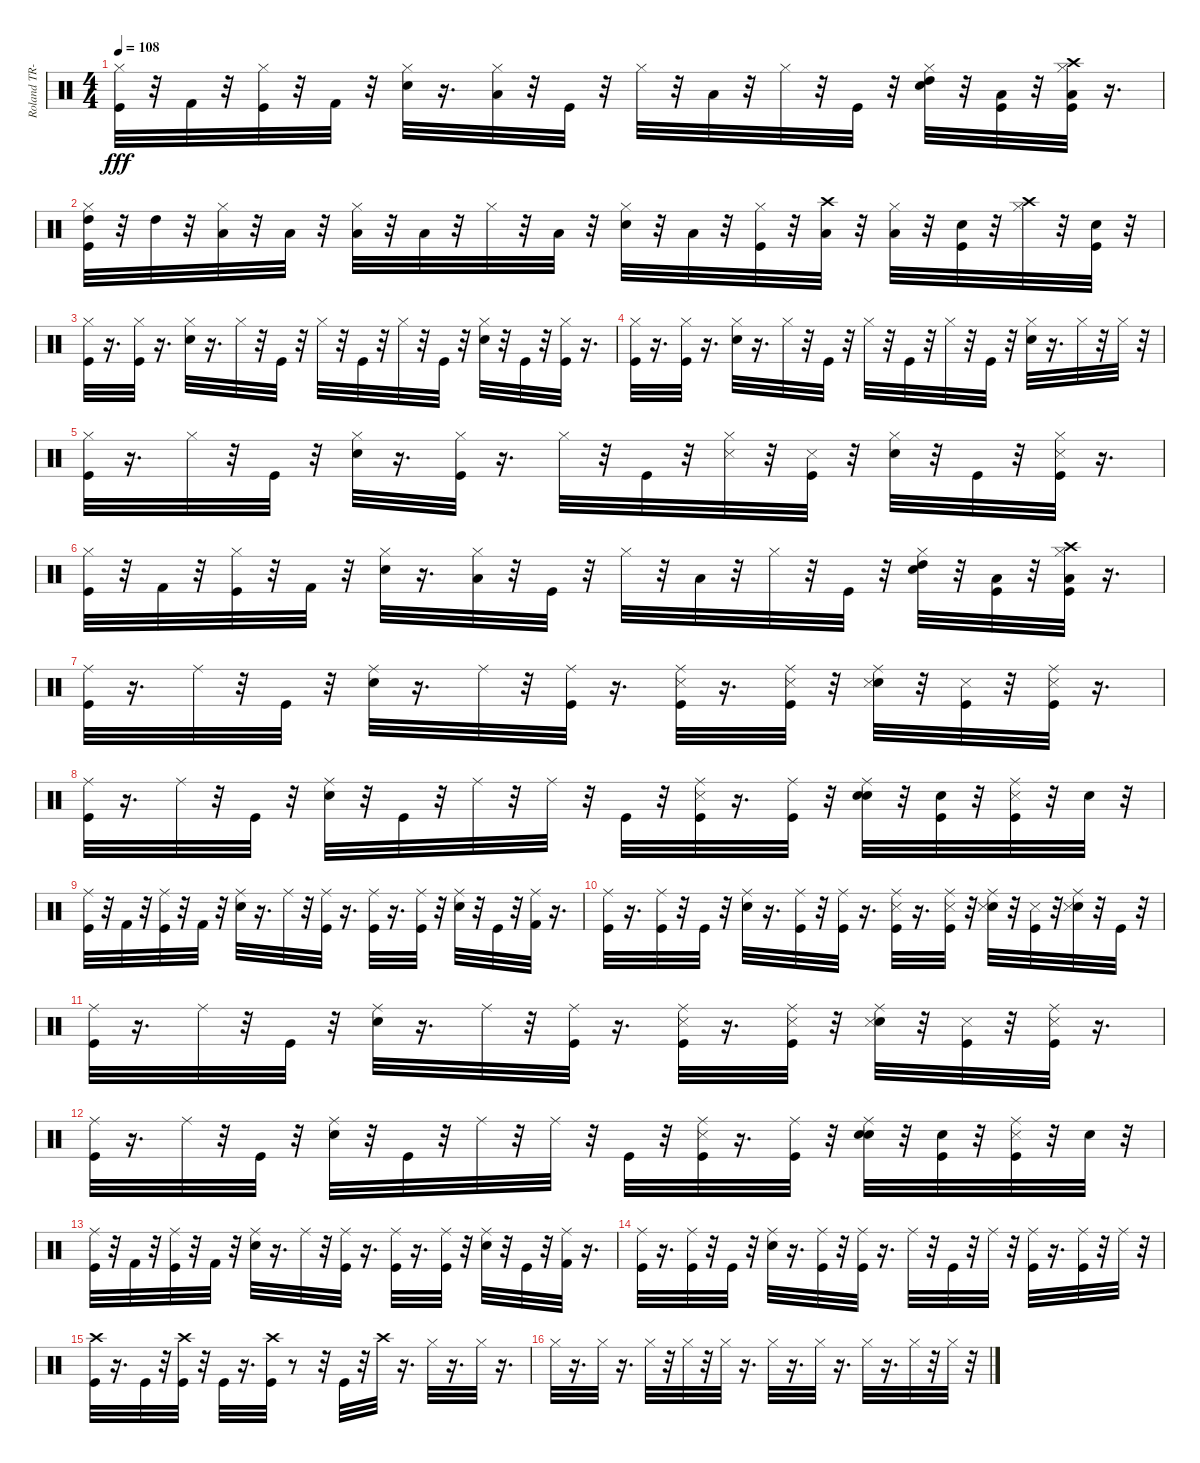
\track ("Roland TR-707" "Roland TR-") {instrument percussion}
\staff {score}
\articulation defaults
\ts (4 4)
\tempo 108
\clef neutral
\ks c
("Kick (hit)" "Hi-Hat (closed)").32{dy fff} r.32 "Kick (hit) 2".32 r.32 ("Kick (hit)" "Hi-Hat (closed)").32 r.32 "Kick (hit) 2".32 r.32 ("Snare (hit) 2" "Hi-Hat (closed)").32 r.16{d} ("Low Tom (hit)" "Hi-Hat (closed)").32 r.32 "Kick (hit)".32 r.32 "Hi-Hat (closed)".32 r.32 "Low Floor Tom (hit)".32 r.32 "Hi-Hat (closed)".32 r.32 "Kick (hit)".32 r.32 ("Snare (hit) 2" "High Tom (hit)" "Hi-Hat (closed)").32 r.32 ("Kick (hit)" "Low Floor Tom (hit)").32 r.32 ("Kick (hit)" "Low Tom (hit)" "Hi-Hat (closed)" "Crash high (hit)").32 r.16{d} |
("Kick (hit)" "High Tom (hit)" "Hi-Hat (closed)").32 r.32 "High Tom (hit)".32 r.32 ("Low Tom (hit)" "Hi-Hat (closed)").32 r.32 "Low Tom (hit)".32 r.32 ("Low Floor Tom (hit)" "Hi-Hat (closed)").32 r.32 "Low Floor Tom (hit)".32 r.32 "Hi-Hat (closed)".32 r.32 "Low Floor Tom (hit)".32 r.32 ("Snare (hit) 2" "Hi-Hat (closed)").32 r.32 "Low Floor Tom (hit)".32 r.32 ("Kick (hit)" "Hi-Hat (closed)").32 r.32 ("Low Tom (hit)" "Crash high (hit)").32 r.32 ("Low Floor Tom (hit)" "Hi-Hat (closed)").32 r.32 ("Kick (hit)" "Hand Clap (hit)").32 r.32 ("Hi-Hat (closed)" "Crash high (hit)").32 r.32 ("Kick (hit)" "Hand Clap (hit)").32 r.32 |
("Kick (hit)" "Hi-Hat (closed)").32 r.16{d} ("Kick (hit)" "Hi-Hat (closed)").32 r.16{d} ("Snare (hit) 2" "Hi-Hat (closed)").32 r.16{d} "Hi-Hat (closed)".32 r.32 "Kick (hit)".32 r.32 "Hi-Hat (closed)".32 r.32 "Kick (hit)".32 r.32 "Hi-Hat (closed)".32 r.32 "Kick (hit)".32 r.32 ("Snare (hit) 2" "Hi-Hat (closed)").32 r.32 "Kick (hit)".32 r.32 ("Kick (hit)" "Hi-Hat (closed)").32 r.16{d} |
("Kick (hit)" "Hi-Hat (closed)").32 r.16{d} ("Kick (hit)" "Hi-Hat (closed)").32 r.16{d} ("Snare (hit) 2" "Hi-Hat (closed)").32 r.16{d} "Hi-Hat (closed)".32 r.32 "Kick (hit)".32 r.32 "Hi-Hat (closed)".32 r.32 "Kick (hit)".32 r.32 "Hi-Hat (closed)".32 r.32 "Kick (hit)".32 r.32 ("Snare (hit) 2" "Hi-Hat (closed)").32 r.16{d} "Hi-Hat (closed)".32 r.32 "Hi-Hat (closed)".32 r.32 |
("Kick (hit)" "Hi-Hat (closed)").32 r.16{d} "Hi-Hat (closed)".32 r.32 "Kick (hit)".32 r.32 ("Snare (hit) 2" "Hi-Hat (closed)").32 r.16{d} ("Kick (hit)" "Hi-Hat (closed)").32 r.16{d} "Hi-Hat (closed)".32 r.32 "Kick (hit)".32 r.32 ("Hi-Hat (closed)" "Snare (side stick) 3").32 r.32 ("Kick (hit)" "Snare (side stick) 3").32 r.32 ("Snare (hit) 2" "Hi-Hat (closed)").32 r.32 "Kick (hit)".32 r.32 ("Kick (hit)" "Hi-Hat (closed)" "Snare (side stick) 3").32 r.16{d} |
("Kick (hit)" "Hi-Hat (closed)").32 r.32 "Kick (hit) 2".32 r.32 ("Kick (hit)" "Hi-Hat (closed)").32 r.32 "Kick (hit) 2".32 r.32 ("Snare (hit) 2" "Hi-Hat (closed)").32 r.16{d} ("Low Tom (hit)" "Hi-Hat (closed)").32 r.32 "Kick (hit)".32 r.32 "Hi-Hat (closed)".32 r.32 "Low Floor Tom (hit)".32 r.32 "Hi-Hat (closed)".32 r.32 "Kick (hit)".32 r.32 ("Snare (hit) 2" "High Tom (hit)" "Hi-Hat (closed)").32 r.32 ("Kick (hit)" "Low Floor Tom (hit)").32 r.32 ("Kick (hit)" "Low Tom (hit)" "Hi-Hat (closed)" "Crash high (hit)").32 r.16{d} |
("Kick (hit)" "Ride (middle)").32 r.16{d} "Ride (middle)".32 r.32 "Kick (hit)".32 r.32 ("Snare (hit) 2" "Ride (middle)").32 r.16{d} "Ride (middle)".32 r.32 ("Kick (hit)" "Ride (middle)").32 r.16{d} ("Kick (hit)" "Snare (side stick) 3" "Ride (middle)").32 r.16{d} ("Kick (hit)" "Snare (side stick) 3" "Ride (middle)").32 r.32 ("Snare (hit) 2" "Snare (side stick) 3" "Ride (middle)").32 r.32 ("Kick (hit)" "Snare (side stick) 3").32 r.32 ("Kick (hit)" "Snare (side stick) 3" "Ride (middle)").32 r.16{d} |
("Kick (hit)" "Ride (middle)").32 r.16{d} "Ride (middle)".32 r.32 "Kick (hit)".32 r.32 ("Snare (hit) 2" "Ride (middle)").32 r.32 "Kick (hit)".32 r.32 "Ride (middle)".32 r.32 "Ride (middle)".32 r.32 "Kick (hit)".32 r.32 ("Kick (hit)" "Snare (side stick) 3" "Ride (middle)").32 r.16{d} ("Kick (hit)" "Ride (middle)").32 r.32 ("Snare (hit) 2" "Hand Clap (hit)" "Ride (middle)").32 r.32 ("Kick (hit)" "Hand Clap (hit)").32 r.32 ("Kick (hit)" "Snare (side stick) 3" "Ride (middle)").32 r.32 "Hand Clap (hit)".32 r.32 |
("Kick (hit)" "Ride (middle)").32 r.32 "Kick (hit) 2".32 r.32 ("Kick (hit)" "Ride (middle)").32 r.32 "Kick (hit) 2".32 r.32 ("Snare (hit) 2" "Ride (middle)").32 r.16{d} "Ride (middle)".32 r.32 ("Kick (hit)" "Ride (middle)").32 r.16{d} ("Kick (hit)" "Ride (middle)").32 r.16{d} ("Kick (hit)" "Ride (middle)").32 r.32 ("Snare (hit) 2" "Ride (middle)").32 r.32 "Kick (hit)".32 r.32 ("Kick (hit) 2" "Ride (middle)").32 r.16{d} |
("Kick (hit)" "Ride (middle)").32 r.16{d} ("Kick (hit)" "Ride (middle)").32 r.32 "Kick (hit)".32 r.32 ("Snare (hit) 2" "Ride (middle)").32 r.16{d} ("Kick (hit)" "Ride (middle)").32 r.32 ("Kick (hit)" "Ride (middle)").32 r.16{d} ("Kick (hit)" "Snare (side stick) 3" "Ride (middle)").32 r.16{d} ("Kick (hit)" "Snare (side stick) 3" "Ride (middle)").32 r.32 ("Snare (hit) 2" "Snare (side stick) 3" "Ride (middle)").32 r.32 ("Kick (hit)" "Snare (side stick) 3").32 r.32 ("Snare (hit) 2" "Snare (side stick) 3" "Ride (middle)").32 r.32 "Kick (hit)".32 r.32 |
("Kick (hit)" "Ride (middle)").32 r.16{d} "Ride (middle)".32 r.32 "Kick (hit)".32 r.32 ("Snare (hit) 2" "Ride (middle)").32 r.16{d} "Ride (middle)".32 r.32 ("Kick (hit)" "Ride (middle)").32 r.16{d} ("Kick (hit)" "Snare (side stick) 3" "Ride (middle)").32 r.16{d} ("Kick (hit)" "Snare (side stick) 3" "Ride (middle)").32 r.32 ("Snare (hit) 2" "Snare (side stick) 3" "Ride (middle)").32 r.32 ("Kick (hit)" "Snare (side stick) 3").32 r.32 ("Kick (hit)" "Snare (side stick) 3" "Ride (middle)").32 r.16{d} |
("Kick (hit)" "Ride (middle)").32 r.16{d} "Ride (middle)".32 r.32 "Kick (hit)".32 r.32 ("Snare (hit) 2" "Ride (middle)").32 r.32 "Kick (hit)".32 r.32 "Ride (middle)".32 r.32 "Ride (middle)".32 r.32 "Kick (hit)".32 r.32 ("Kick (hit)" "Snare (side stick) 3" "Ride (middle)").32 r.16{d} ("Kick (hit)" "Ride (middle)").32 r.32 ("Snare (hit) 2" "Hand Clap (hit)" "Ride (middle)").32 r.32 ("Kick (hit)" "Hand Clap (hit)").32 r.32 ("Kick (hit)" "Snare (side stick) 3" "Ride (middle)").32 r.32 "Hand Clap (hit)".32 r.32 |
("Kick (hit)" "Ride (middle)").32 r.32 "Kick (hit) 2".32 r.32 ("Kick (hit)" "Ride (middle)").32 r.32 "Kick (hit) 2".32 r.32 ("Snare (hit) 2" "Ride (middle)").32 r.16{d} "Ride (middle)".32 r.32 ("Kick (hit)" "Ride (middle)").32 r.16{d} ("Kick (hit)" "Ride (middle)").32 r.16{d} ("Kick (hit)" "Ride (middle)").32 r.32 ("Snare (hit) 2" "Ride (middle)").32 r.32 "Kick (hit)".32 r.32 ("Kick (hit) 2" "Ride (middle)").32 r.16{d} |
("Kick (hit)" "Ride (middle)").32 r.16{d} ("Kick (hit)" "Ride (middle)").32 r.32 "Kick (hit)".32 r.32 ("Snare (hit) 2" "Ride (middle)").32 r.16{d} ("Kick (hit)" "Ride (middle)").32 r.32 ("Kick (hit)" "Ride (middle)").32 r.16{d} "Ride (middle)".32 r.32 "Kick (hit)".32 r.32 "Ride (middle)".32 r.32 ("Kick (hit)" "Ride (middle)").32 r.16{d} ("Kick (hit)" "Ride (middle)").32 r.32 "Ride (middle)".32 r.32 |
("Kick (hit)" "Crash high (hit)").32 r.16{d} "Kick (hit)".32 r.32 ("Kick (hit)" "Crash high (hit)").32 r.32 "Kick (hit)".32 r.16{d} ("Kick (hit)" "Crash high (hit)").32 r.8 r.32 "Kick (hit)".32 r.32 "Crash high (hit)".32 r.16{d} "Hi-Hat (closed)".32 r.16{d} "Hi-Hat (closed)".32 r.16{d} |
"Hi-Hat (closed)".32 r.16{d} "Hi-Hat (closed)".32 r.16{d} "Hi-Hat (closed)".32 r.32 "Hi-Hat (closed)".32 r.32 "Hi-Hat (closed)".32 r.16{d} "Hi-Hat (closed)".32 r.16{d} "Hi-Hat (closed)".32 r.16{d} "Hi-Hat (closed)".32 r.16{d} "Hi-Hat (closed)".32 r.32 "Hi-Hat (closed)".32 r.32
